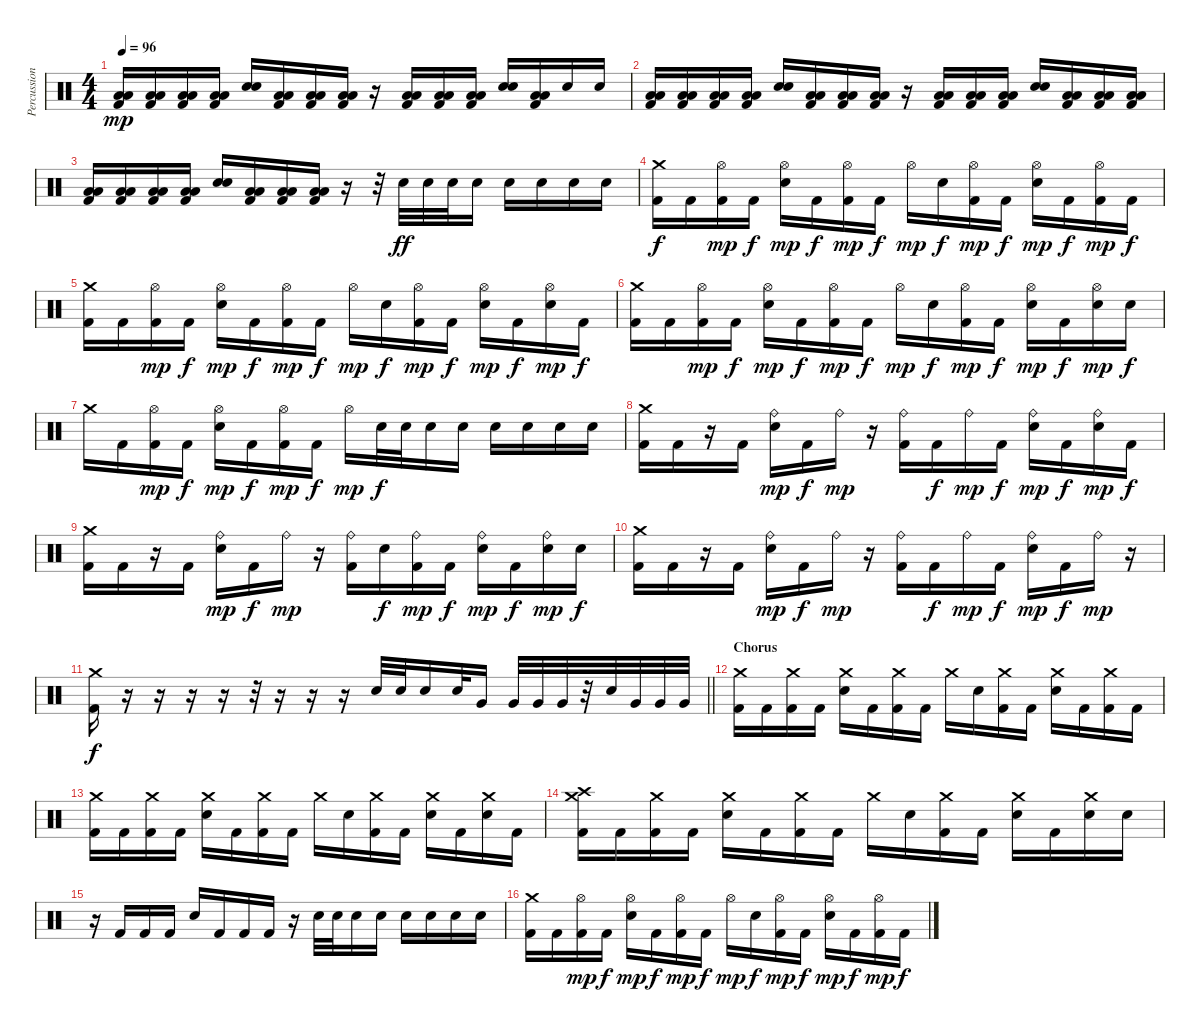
\track ("Percussion" "Percussion") {instrument percussion}
\staff {score}
\articulation defaults
\ts (4 4)
\tempo 96
\clef neutral
\ks c
("Low Tom (hit)" "Low Floor Tom (hit)" "Kick (hit) 2").16{dy mp} ("Low Tom (hit)" "Low Floor Tom (hit)" "Kick (hit) 2").16 ("Low Tom (hit)" "Low Floor Tom (hit)" "Kick (hit) 2").16 ("Low Tom (hit)" "Low Floor Tom (hit)" "Kick (hit) 2").16 ("Electric Snare (hit)" "Snare (hit) 2").16 ("Low Tom (hit)" "Low Floor Tom (hit)" "Kick (hit) 2").16 ("Low Tom (hit)" "Low Floor Tom (hit)" "Kick (hit) 2").16 ("Low Tom (hit)" "Low Floor Tom (hit)" "Kick (hit) 2").16 r.16 ("Low Tom (hit)" "Low Floor Tom (hit)" "Kick (hit) 2").16 ("Low Tom (hit)" "Low Floor Tom (hit)" "Kick (hit) 2").16 ("Low Tom (hit)" "Low Floor Tom (hit)" "Kick (hit) 2").16 ("Electric Snare (hit)" "Snare (hit) 2").16 ("Low Tom (hit)" "Low Floor Tom (hit)" "Kick (hit) 2").16 "Electric Snare (hit)".16 "Electric Snare (hit)".16 |
("Low Tom (hit)" "Low Floor Tom (hit)" "Kick (hit) 2").16 ("Low Tom (hit)" "Low Floor Tom (hit)" "Kick (hit) 2").16 ("Low Tom (hit)" "Low Floor Tom (hit)" "Kick (hit) 2").16 ("Low Tom (hit)" "Low Floor Tom (hit)" "Kick (hit) 2").16 ("Electric Snare (hit)" "Snare (hit) 2").16 ("Low Tom (hit)" "Low Floor Tom (hit)" "Kick (hit) 2").16 ("Low Tom (hit)" "Low Floor Tom (hit)" "Kick (hit) 2").16 ("Low Tom (hit)" "Low Floor Tom (hit)" "Kick (hit) 2").16 r.16 ("Low Tom (hit)" "Low Floor Tom (hit)" "Kick (hit) 2").16 ("Low Tom (hit)" "Low Floor Tom (hit)" "Kick (hit) 2").16 ("Low Tom (hit)" "Low Floor Tom (hit)" "Kick (hit) 2").16 ("Electric Snare (hit)" "Snare (hit) 2").16 ("Low Tom (hit)" "Low Floor Tom (hit)" "Kick (hit) 2").16 ("Low Tom (hit)" "Low Floor Tom (hit)" "Kick (hit) 2").16 ("Low Tom (hit)" "Low Floor Tom (hit)" "Kick (hit) 2").16 |
("Low Tom (hit)" "Low Floor Tom (hit)" "Kick (hit) 2").16 ("Low Tom (hit)" "Low Floor Tom (hit)" "Kick (hit) 2").16 ("Low Tom (hit)" "Low Floor Tom (hit)" "Kick (hit) 2").16 ("Low Tom (hit)" "Low Floor Tom (hit)" "Kick (hit) 2").16 ("Electric Snare (hit)" "Snare (hit) 2").16 ("Low Tom (hit)" "Low Floor Tom (hit)" "Kick (hit) 2").16 ("Low Tom (hit)" "Low Floor Tom (hit)" "Kick (hit) 2").16 ("Low Tom (hit)" "Low Floor Tom (hit)" "Kick (hit) 2").16 r.16 r.32 "Electric Snare (hit)".32{dy ff} "Electric Snare (hit)".32 "Electric Snare (hit)".32 "Electric Snare (hit)".16 "Electric Snare (hit)".16 "Electric Snare (hit)".16 "Electric Snare (hit)".16 "Electric Snare (hit)".16 |
("Crash medium (hit)" "Kick (hit) 2").16{dy f} "Kick (hit) 2".16 ("Hi-Hat (open)" "Kick (hit) 2").16{dy mp} "Kick (hit) 2".16{dy f} ("Hi-Hat (open)" "Electric Snare (hit)").16{dy mp} "Kick (hit) 2".16{dy f} ("Hi-Hat (open)" "Kick (hit) 2").16{dy mp} "Kick (hit) 2".16{dy f} "Hi-Hat (open)".16{dy mp} "Electric Snare (hit)".16{dy f} ("Hi-Hat (open)" "Kick (hit) 2").16{dy mp} "Kick (hit) 2".16{dy f} ("Hi-Hat (open)" "Electric Snare (hit)").16{dy mp} "Kick (hit) 2".16{dy f} ("Hi-Hat (open)" "Kick (hit) 2").16{dy mp} "Kick (hit) 2".16{dy f} |
("Crash medium (hit)" "Kick (hit) 2").16 "Kick (hit) 2".16 ("Hi-Hat (open)" "Kick (hit) 2").16{dy mp} "Kick (hit) 2".16{dy f} ("Hi-Hat (open)" "Electric Snare (hit)").16{dy mp} "Kick (hit) 2".16{dy f} ("Hi-Hat (open)" "Kick (hit) 2").16{dy mp} "Kick (hit) 2".16{dy f} "Hi-Hat (open)".16{dy mp} "Electric Snare (hit)".16{dy f} ("Hi-Hat (open)" "Kick (hit) 2").16{dy mp} "Kick (hit) 2".16{dy f} ("Hi-Hat (open)" "Electric Snare (hit)").16{dy mp} "Kick (hit) 2".16{dy f} ("Hi-Hat (open)" "Electric Snare (hit)").16{dy mp} "Kick (hit) 2".16{dy f} |
("Crash medium (hit)" "Kick (hit) 2").16 "Kick (hit) 2".16 ("Hi-Hat (open)" "Kick (hit) 2").16{dy mp} "Kick (hit) 2".16{dy f} ("Hi-Hat (open)" "Electric Snare (hit)").16{dy mp} "Kick (hit) 2".16{dy f} ("Hi-Hat (open)" "Kick (hit) 2").16{dy mp} "Kick (hit) 2".16{dy f} "Hi-Hat (open)".16{dy mp} "Electric Snare (hit)".16{dy f} ("Hi-Hat (open)" "Kick (hit) 2").16{dy mp} "Kick (hit) 2".16{dy f} ("Hi-Hat (open)" "Electric Snare (hit)").16{dy mp} "Kick (hit) 2".16{dy f} ("Hi-Hat (open)" "Electric Snare (hit)").16{dy mp} "Electric Snare (hit)".16{dy f} |
"Crash medium (hit)".16 "Kick (hit) 2".16 ("Hi-Hat (open)" "Kick (hit) 2").16{dy mp} "Kick (hit) 2".16{dy f} ("Hi-Hat (open)" "Electric Snare (hit)").16{dy mp} "Kick (hit) 2".16{dy f} ("Hi-Hat (open)" "Kick (hit) 2").16{dy mp} "Kick (hit) 2".16{dy f} "Hi-Hat (open)".16{dy mp} "Electric Snare (hit)".32{dy f} "Electric Snare (hit)".32 "Electric Snare (hit)".16 "Electric Snare (hit)".16 "Electric Snare (hit)".16 "Electric Snare (hit)".16 "Electric Snare (hit)".16 "Electric Snare (hit)".16 |
("Crash medium (hit)" "Kick (hit) 2").16 "Kick (hit) 2".16 r.16 "Kick (hit) 2".16 ("Ride (bell)" "Electric Snare (hit)").16{dy mp} "Kick (hit) 2".16{dy f} "Ride (bell)".16{dy mp} r.16 ("Ride (bell)" "Kick (hit) 2").16 "Kick (hit) 2".16{dy f} "Ride (bell)".16{dy mp} "Kick (hit) 2".16{dy f} ("Ride (bell)" "Electric Snare (hit)").16{dy mp} "Kick (hit) 2".16{dy f} ("Ride (bell)" "Electric Snare (hit)").16{dy mp} "Kick (hit) 2".16{dy f} |
("Crash medium (hit)" "Kick (hit) 2").16 "Kick (hit) 2".16 r.16 "Kick (hit) 2".16 ("Ride (bell)" "Electric Snare (hit)").16{dy mp} "Kick (hit) 2".16{dy f} "Ride (bell)".16{dy mp} r.16 ("Ride (bell)" "Kick (hit) 2").16 "Electric Snare (hit)".16{dy f} ("Ride (bell)" "Kick (hit) 2").16{dy mp} "Kick (hit) 2".16{dy f} ("Ride (bell)" "Electric Snare (hit)").16{dy mp} "Kick (hit) 2".16{dy f} ("Ride (bell)" "Electric Snare (hit)").16{dy mp} "Electric Snare (hit)".16{dy f} |
("Crash medium (hit)" "Kick (hit) 2").16 "Kick (hit) 2".16 r.16 "Kick (hit) 2".16 ("Ride (bell)" "Electric Snare (hit)").16{dy mp} "Kick (hit) 2".16{dy f} "Ride (bell)".16{dy mp} r.16 ("Ride (bell)" "Kick (hit) 2").16 "Kick (hit) 2".16{dy f} "Ride (bell)".16{dy mp} "Kick (hit) 2".16{dy f} ("Ride (bell)" "Electric Snare (hit)").16{dy mp} "Kick (hit) 2".16{dy f} "Ride (bell)".16{dy mp} r.16 |
\barLineRight lightlight
("Crash medium (hit)" "Kick (hit) 2").16{dy f} r.16 r.16 r.16 r.16 r.32 r.16 r.16 r.16 "Electric Snare (hit)".32 "Electric Snare (hit)".32 "Electric Snare (hit)".16 "Electric Snare (hit)".32 "Very Low Tom (hit)".16 "Very Low Tom (hit)".32 "Very Low Tom (hit)".32 "Very Low Tom (hit)".32 r.32 "Electric Snare (hit)".32 "Very Low Tom (hit)".32 "Very Low Tom (hit)".32 "Very Low Tom (hit)".32 |
\section ("" "Chorus")
("Crash medium (hit)" "Kick (hit) 2").16 "Kick (hit) 2".16 ("Crash medium (hit)" "Kick (hit) 2").16 "Kick (hit) 2".16 ("Crash medium (hit)" "Electric Snare (hit)").16 "Kick (hit) 2".16 ("Crash medium (hit)" "Kick (hit) 2").16 "Kick (hit) 2".16 "Crash medium (hit)".16 "Electric Snare (hit)".16 ("Crash medium (hit)" "Kick (hit) 2").16 "Kick (hit) 2".16 ("Crash medium (hit)" "Electric Snare (hit)").16 "Kick (hit) 2".16 ("Crash medium (hit)" "Kick (hit) 2").16 "Kick (hit) 2".16 |
("Crash medium (hit)" "Kick (hit) 2").16 "Kick (hit) 2".16 ("Crash medium (hit)" "Kick (hit) 2").16 "Kick (hit) 2".16 ("Crash medium (hit)" "Electric Snare (hit)").16 "Kick (hit) 2".16 ("Crash medium (hit)" "Kick (hit) 2").16 "Kick (hit) 2".16 "Crash medium (hit)".16 "Electric Snare (hit)".16 ("Crash medium (hit)" "Kick (hit) 2").16 "Kick (hit) 2".16 ("Crash medium (hit)" "Electric Snare (hit)").16 "Kick (hit) 2".16 ("Crash medium (hit)" "Electric Snare (hit)").16 "Kick (hit) 2".16 |
("Crash high (hit)" "Crash medium (hit)" "Kick (hit) 2").16 "Kick (hit) 2".16 ("Crash medium (hit)" "Kick (hit) 2").16 "Kick (hit) 2".16 ("Crash medium (hit)" "Electric Snare (hit)").16 "Kick (hit) 2".16 ("Crash medium (hit)" "Kick (hit) 2").16 "Kick (hit) 2".16 "Crash medium (hit)".16 "Electric Snare (hit)".16 ("Crash medium (hit)" "Kick (hit) 2").16 "Kick (hit) 2".16 ("Crash medium (hit)" "Electric Snare (hit)").16 "Kick (hit) 2".16 ("Crash medium (hit)" "Electric Snare (hit)").16 "Electric Snare (hit)".16 |
r.16 "Kick (hit) 2".16 "Kick (hit) 2".16 "Kick (hit) 2".16 "Electric Snare (hit)".16 "Kick (hit) 2".16 "Kick (hit) 2".16 "Kick (hit) 2".16 r.16 "Electric Snare (hit)".32 "Electric Snare (hit)".32 "Electric Snare (hit)".16 "Electric Snare (hit)".16 "Electric Snare (hit)".16 "Electric Snare (hit)".16 "Electric Snare (hit)".16 "Electric Snare (hit)".16 |
("Crash medium (hit)" "Kick (hit) 2").16 "Kick (hit) 2".16 ("Hi-Hat (open)" "Kick (hit) 2").16{dy mp} "Kick (hit) 2".16{dy f} ("Hi-Hat (open)" "Electric Snare (hit)").16{dy mp} "Kick (hit) 2".16{dy f} ("Hi-Hat (open)" "Kick (hit) 2").16{dy mp} "Kick (hit) 2".16{dy f} "Hi-Hat (open)".16{dy mp} "Electric Snare (hit)".16{dy f} ("Hi-Hat (open)" "Kick (hit) 2").16{dy mp} "Kick (hit) 2".16{dy f} ("Hi-Hat (open)" "Electric Snare (hit)").16{dy mp} "Kick (hit) 2".16{dy f} ("Hi-Hat (open)" "Kick (hit) 2").16{dy mp} "Kick (hit) 2".16{dy f}
